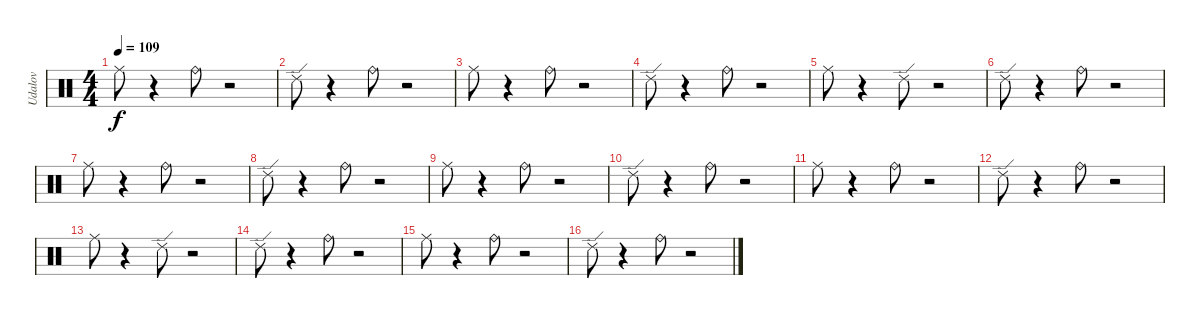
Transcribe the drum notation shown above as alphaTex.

\track ("Udalov" "Udalov") {instrument percussion}
\staff {score}
\articulation defaults
\ts (4 4)
\tempo 109
\clef neutral
\ks c "Ride (middle)".8{dy f}
r.4 "Ride (bell)".8 r.2 |
"Ride (edge) 2".8 r.4 "Ride (bell)".8 r.2 |
"Ride (middle)".8 r.4 "Ride (bell)".8 r.2 |
"Ride (edge) 2".8 r.4 "Ride (bell)".8 r.2 |
"Ride (middle)".8 r.4 "Ride (edge) 2".8 r.2 |
"Ride (edge) 2".8 r.4 "Ride (bell)".8 r.2 |
"Ride (middle)".8 r.4 "Ride (bell)".8 r.2 |
"Ride (edge) 2".8 r.4 "Ride (bell)".8 r.2 |
"Ride (middle)".8 r.4 "Ride (bell)".8 r.2 |
"Ride (edge) 2".8 r.4 "Ride (bell)".8 r.2 |
"Ride (middle)".8 r.4 "Ride (bell)".8 r.2 |
"Ride (edge) 2".8 r.4 "Ride (bell)".8 r.2 |
"Ride (middle)".8 r.4 "Ride (edge) 2".8 r.2 |
"Ride (edge) 2".8 r.4 "Ride (bell)".8 r.2 |
"Ride (middle)".8 r.4 "Ride (bell)".8 r.2 |
"Ride (edge) 2".8 r.4 "Ride (bell)".8 r.2
